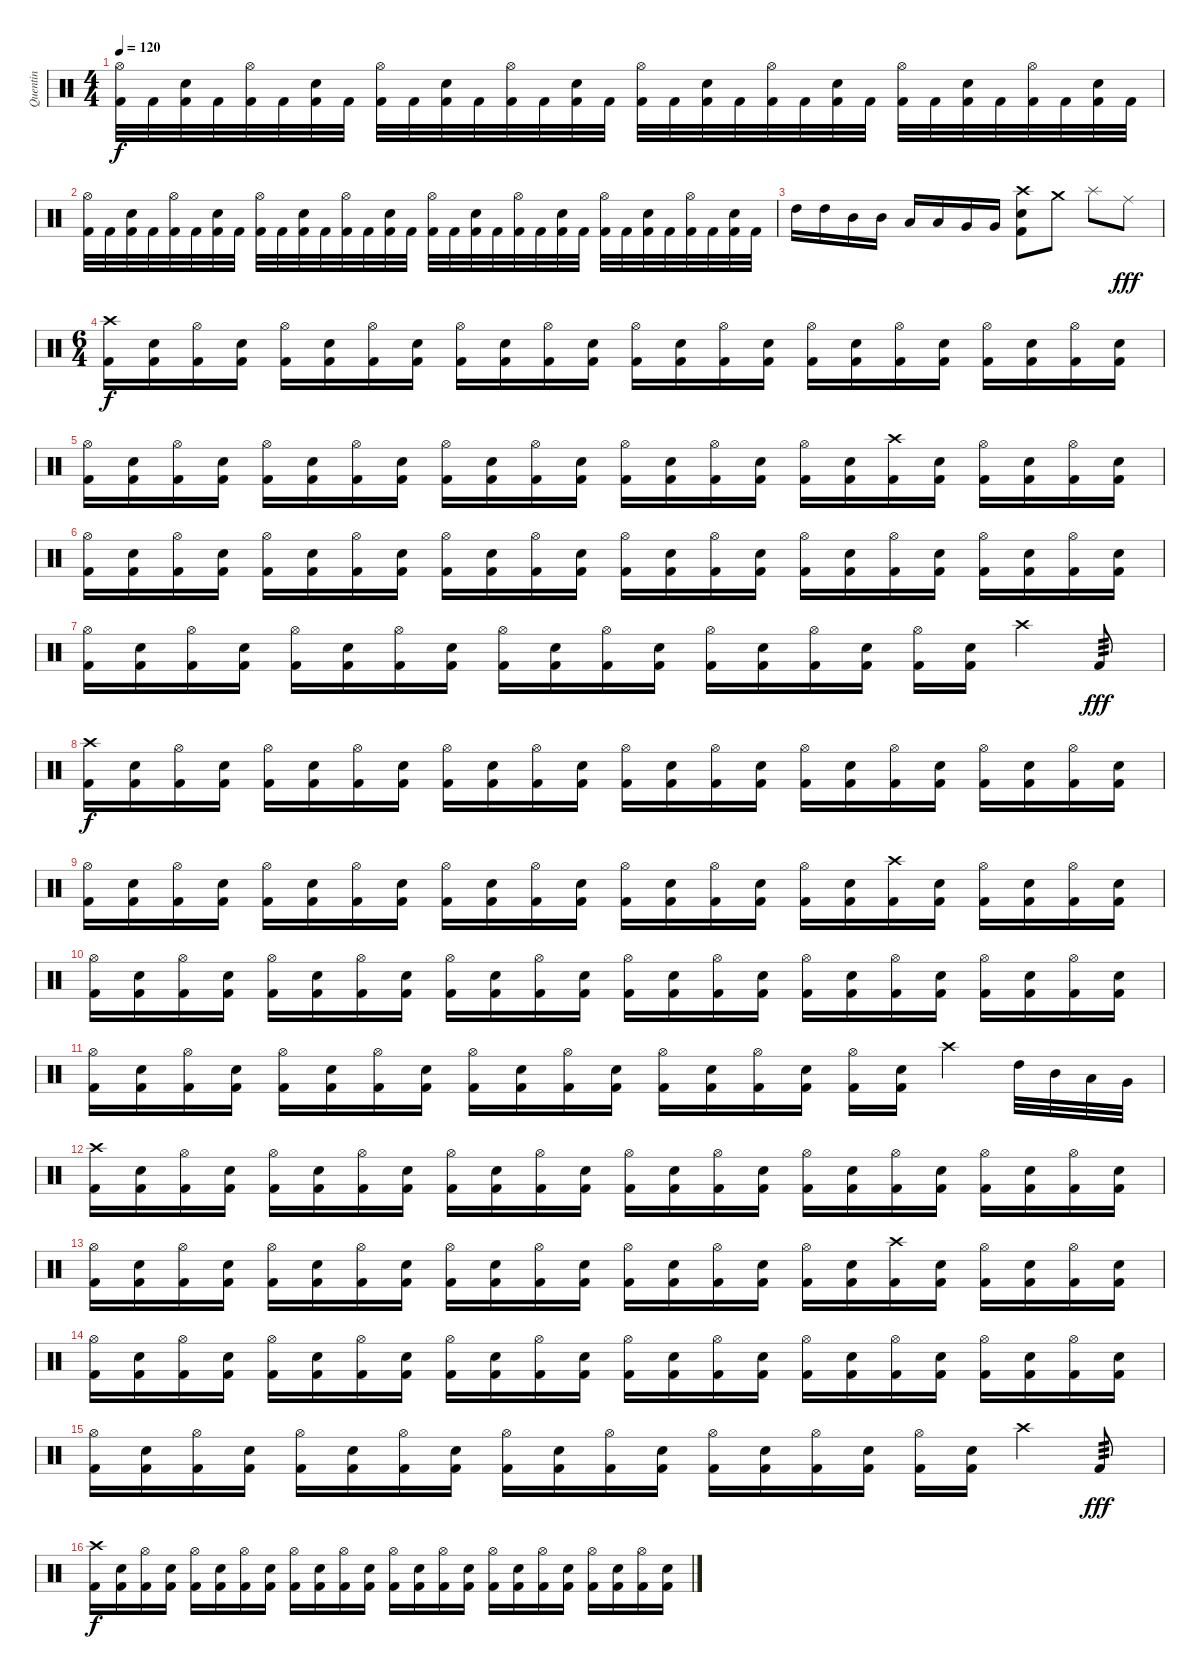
\track ("Quentin" "Quentin") {instrument percussion}
\staff {score}
\articulation defaults
\ts (4 4)
\tempo 120
\clef neutral
\ks c
("Hi-Hat (open)" "Kick (hit) 2").32{dy f} "Kick (hit) 2".32 ("Snare (hit) 2" "Kick (hit) 2").32 "Kick (hit) 2".32 ("Hi-Hat (open)" "Kick (hit) 2").32 "Kick (hit) 2".32 ("Snare (hit) 2" "Kick (hit) 2").32 "Kick (hit) 2".32 ("Hi-Hat (open)" "Kick (hit) 2").32 "Kick (hit) 2".32 ("Snare (hit) 2" "Kick (hit) 2").32 "Kick (hit) 2".32 ("Hi-Hat (open)" "Kick (hit) 2").32 "Kick (hit) 2".32 ("Snare (hit) 2" "Kick (hit) 2").32 "Kick (hit) 2".32 ("Hi-Hat (open)" "Kick (hit) 2").32 "Kick (hit) 2".32 ("Snare (hit) 2" "Kick (hit) 2").32 "Kick (hit) 2".32 ("Hi-Hat (open)" "Kick (hit) 2").32 "Kick (hit) 2".32 ("Snare (hit) 2" "Kick (hit) 2").32 "Kick (hit) 2".32 ("Hi-Hat (open)" "Kick (hit) 2").32 "Kick (hit) 2".32 ("Snare (hit) 2" "Kick (hit) 2").32 "Kick (hit) 2".32 ("Hi-Hat (open)" "Kick (hit) 2").32 "Kick (hit) 2".32 ("Snare (hit) 2" "Kick (hit) 2").32 "Kick (hit) 2".32 |
("Hi-Hat (open)" "Kick (hit) 2").32 "Kick (hit) 2".32 ("Snare (hit) 2" "Kick (hit) 2").32 "Kick (hit) 2".32 ("Hi-Hat (open)" "Kick (hit) 2").32 "Kick (hit) 2".32 ("Snare (hit) 2" "Kick (hit) 2").32 "Kick (hit) 2".32 ("Hi-Hat (open)" "Kick (hit) 2").32 "Kick (hit) 2".32 ("Snare (hit) 2" "Kick (hit) 2").32 "Kick (hit) 2".32 ("Hi-Hat (open)" "Kick (hit) 2").32 "Kick (hit) 2".32 ("Snare (hit) 2" "Kick (hit) 2").32 "Kick (hit) 2".32 ("Hi-Hat (open)" "Kick (hit) 2").32 "Kick (hit) 2".32 ("Snare (hit) 2" "Kick (hit) 2").32 "Kick (hit) 2".32 ("Hi-Hat (open)" "Kick (hit) 2").32 "Kick (hit) 2".32 ("Snare (hit) 2" "Kick (hit) 2").32 "Kick (hit) 2".32 ("Hi-Hat (open)" "Kick (hit) 2").32 "Kick (hit) 2".32 ("Snare (hit) 2" "Kick (hit) 2").32 "Kick (hit) 2".32 ("Hi-Hat (open)" "Kick (hit) 2").32 "Kick (hit) 2".32 ("Snare (hit) 2" "Kick (hit) 2").32 "Kick (hit) 2".32 |
"High Tom (hit)".16 "High Tom (hit)".16 "Mid Tom (hit)".16 "Mid Tom (hit)".16 "Low Tom (hit)".16 "Low Tom (hit)".16 "Very Low Tom (hit)".16 "Very Low Tom (hit)".16 ("Crash high (hit)" "Snare (hit) 2" "Kick (hit) 2").8 "Crash medium (hit)".8 "Splash (hit)".8 "Ride (middle)".8{dy fff} |
\ts (6 4)
("Crash high (hit)" "Kick (hit) 2").16{dy f} ("Snare (hit) 2" "Kick (hit) 2").16 ("Hi-Hat (open)" "Kick (hit) 2").16 ("Snare (hit) 2" "Kick (hit) 2").16 ("Hi-Hat (open)" "Kick (hit) 2").16 ("Snare (hit) 2" "Kick (hit) 2").16 ("Hi-Hat (open)" "Kick (hit) 2").16 ("Snare (hit) 2" "Kick (hit) 2").16 ("Hi-Hat (open)" "Kick (hit) 2").16 ("Snare (hit) 2" "Kick (hit) 2").16 ("Hi-Hat (open)" "Kick (hit) 2").16 ("Snare (hit) 2" "Kick (hit) 2").16 ("Hi-Hat (open)" "Kick (hit) 2").16 ("Snare (hit) 2" "Kick (hit) 2").16 ("Hi-Hat (open)" "Kick (hit) 2").16 ("Snare (hit) 2" "Kick (hit) 2").16 ("Hi-Hat (open)" "Kick (hit) 2").16 ("Snare (hit) 2" "Kick (hit) 2").16 ("Hi-Hat (open)" "Kick (hit) 2").16 ("Snare (hit) 2" "Kick (hit) 2").16 ("Hi-Hat (open)" "Kick (hit) 2").16 ("Snare (hit) 2" "Kick (hit) 2").16 ("Hi-Hat (open)" "Kick (hit) 2").16 ("Snare (hit) 2" "Kick (hit) 2").16 |
("Hi-Hat (open)" "Kick (hit) 2").16 ("Snare (hit) 2" "Kick (hit) 2").16 ("Hi-Hat (open)" "Kick (hit) 2").16 ("Snare (hit) 2" "Kick (hit) 2").16 ("Hi-Hat (open)" "Kick (hit) 2").16 ("Snare (hit) 2" "Kick (hit) 2").16 ("Hi-Hat (open)" "Kick (hit) 2").16 ("Snare (hit) 2" "Kick (hit) 2").16 ("Hi-Hat (open)" "Kick (hit) 2").16 ("Snare (hit) 2" "Kick (hit) 2").16 ("Hi-Hat (open)" "Kick (hit) 2").16 ("Snare (hit) 2" "Kick (hit) 2").16 ("Hi-Hat (open)" "Kick (hit) 2").16 ("Snare (hit) 2" "Kick (hit) 2").16 ("Hi-Hat (open)" "Kick (hit) 2").16 ("Snare (hit) 2" "Kick (hit) 2").16 ("Hi-Hat (open)" "Kick (hit) 2").16 ("Snare (hit) 2" "Kick (hit) 2").16 ("Crash high (hit)" "Kick (hit) 2").16 ("Snare (hit) 2" "Kick (hit) 2").16 ("Hi-Hat (open)" "Kick (hit) 2").16 ("Snare (hit) 2" "Kick (hit) 2").16 ("Hi-Hat (open)" "Kick (hit) 2").16 ("Snare (hit) 2" "Kick (hit) 2").16 |
("Hi-Hat (open)" "Kick (hit) 2").16 ("Snare (hit) 2" "Kick (hit) 2").16 ("Hi-Hat (open)" "Kick (hit) 2").16 ("Snare (hit) 2" "Kick (hit) 2").16 ("Hi-Hat (open)" "Kick (hit) 2").16 ("Snare (hit) 2" "Kick (hit) 2").16 ("Hi-Hat (open)" "Kick (hit) 2").16 ("Snare (hit) 2" "Kick (hit) 2").16 ("Hi-Hat (open)" "Kick (hit) 2").16 ("Snare (hit) 2" "Kick (hit) 2").16 ("Hi-Hat (open)" "Kick (hit) 2").16 ("Snare (hit) 2" "Kick (hit) 2").16 ("Hi-Hat (open)" "Kick (hit) 2").16 ("Snare (hit) 2" "Kick (hit) 2").16 ("Hi-Hat (open)" "Kick (hit) 2").16 ("Snare (hit) 2" "Kick (hit) 2").16 ("Hi-Hat (open)" "Kick (hit) 2").16 ("Snare (hit) 2" "Kick (hit) 2").16 ("Hi-Hat (open)" "Kick (hit) 2").16 ("Snare (hit) 2" "Kick (hit) 2").16 ("Hi-Hat (open)" "Kick (hit) 2").16 ("Snare (hit) 2" "Kick (hit) 2").16 ("Hi-Hat (open)" "Kick (hit) 2").16 ("Snare (hit) 2" "Kick (hit) 2").16 |
("Hi-Hat (open)" "Kick (hit) 2").16 ("Snare (hit) 2" "Kick (hit) 2").16 ("Hi-Hat (open)" "Kick (hit) 2").16 ("Snare (hit) 2" "Kick (hit) 2").16 ("Hi-Hat (open)" "Kick (hit) 2").16 ("Snare (hit) 2" "Kick (hit) 2").16 ("Hi-Hat (open)" "Kick (hit) 2").16 ("Snare (hit) 2" "Kick (hit) 2").16 ("Hi-Hat (open)" "Kick (hit) 2").16 ("Snare (hit) 2" "Kick (hit) 2").16 ("Hi-Hat (open)" "Kick (hit) 2").16 ("Snare (hit) 2" "Kick (hit) 2").16 ("Hi-Hat (open)" "Kick (hit) 2").16 ("Snare (hit) 2" "Kick (hit) 2").16 ("Hi-Hat (open)" "Kick (hit) 2").16 ("Snare (hit) 2" "Kick (hit) 2").16 ("Hi-Hat (open)" "Kick (hit) 2").16 ("Snare (hit) 2" "Kick (hit) 2").16 "Crash high (hit)".4 "Kick (hit) 2".8{tp 3 dy fff} |
("Crash high (hit)" "Kick (hit) 2").16{dy f} ("Snare (hit) 2" "Kick (hit) 2").16 ("Hi-Hat (open)" "Kick (hit) 2").16 ("Snare (hit) 2" "Kick (hit) 2").16 ("Hi-Hat (open)" "Kick (hit) 2").16 ("Snare (hit) 2" "Kick (hit) 2").16 ("Hi-Hat (open)" "Kick (hit) 2").16 ("Snare (hit) 2" "Kick (hit) 2").16 ("Hi-Hat (open)" "Kick (hit) 2").16 ("Snare (hit) 2" "Kick (hit) 2").16 ("Hi-Hat (open)" "Kick (hit) 2").16 ("Snare (hit) 2" "Kick (hit) 2").16 ("Hi-Hat (open)" "Kick (hit) 2").16 ("Snare (hit) 2" "Kick (hit) 2").16 ("Hi-Hat (open)" "Kick (hit) 2").16 ("Snare (hit) 2" "Kick (hit) 2").16 ("Hi-Hat (open)" "Kick (hit) 2").16 ("Snare (hit) 2" "Kick (hit) 2").16 ("Hi-Hat (open)" "Kick (hit) 2").16 ("Snare (hit) 2" "Kick (hit) 2").16 ("Hi-Hat (open)" "Kick (hit) 2").16 ("Snare (hit) 2" "Kick (hit) 2").16 ("Hi-Hat (open)" "Kick (hit) 2").16 ("Snare (hit) 2" "Kick (hit) 2").16 |
("Hi-Hat (open)" "Kick (hit) 2").16 ("Snare (hit) 2" "Kick (hit) 2").16 ("Hi-Hat (open)" "Kick (hit) 2").16 ("Snare (hit) 2" "Kick (hit) 2").16 ("Hi-Hat (open)" "Kick (hit) 2").16 ("Snare (hit) 2" "Kick (hit) 2").16 ("Hi-Hat (open)" "Kick (hit) 2").16 ("Snare (hit) 2" "Kick (hit) 2").16 ("Hi-Hat (open)" "Kick (hit) 2").16 ("Snare (hit) 2" "Kick (hit) 2").16 ("Hi-Hat (open)" "Kick (hit) 2").16 ("Snare (hit) 2" "Kick (hit) 2").16 ("Hi-Hat (open)" "Kick (hit) 2").16 ("Snare (hit) 2" "Kick (hit) 2").16 ("Hi-Hat (open)" "Kick (hit) 2").16 ("Snare (hit) 2" "Kick (hit) 2").16 ("Hi-Hat (open)" "Kick (hit) 2").16 ("Snare (hit) 2" "Kick (hit) 2").16 ("Crash high (hit)" "Kick (hit) 2").16 ("Snare (hit) 2" "Kick (hit) 2").16 ("Hi-Hat (open)" "Kick (hit) 2").16 ("Snare (hit) 2" "Kick (hit) 2").16 ("Hi-Hat (open)" "Kick (hit) 2").16 ("Snare (hit) 2" "Kick (hit) 2").16 |
("Hi-Hat (open)" "Kick (hit) 2").16 ("Snare (hit) 2" "Kick (hit) 2").16 ("Hi-Hat (open)" "Kick (hit) 2").16 ("Snare (hit) 2" "Kick (hit) 2").16 ("Hi-Hat (open)" "Kick (hit) 2").16 ("Snare (hit) 2" "Kick (hit) 2").16 ("Hi-Hat (open)" "Kick (hit) 2").16 ("Snare (hit) 2" "Kick (hit) 2").16 ("Hi-Hat (open)" "Kick (hit) 2").16 ("Snare (hit) 2" "Kick (hit) 2").16 ("Hi-Hat (open)" "Kick (hit) 2").16 ("Snare (hit) 2" "Kick (hit) 2").16 ("Hi-Hat (open)" "Kick (hit) 2").16 ("Snare (hit) 2" "Kick (hit) 2").16 ("Hi-Hat (open)" "Kick (hit) 2").16 ("Snare (hit) 2" "Kick (hit) 2").16 ("Hi-Hat (open)" "Kick (hit) 2").16 ("Snare (hit) 2" "Kick (hit) 2").16 ("Hi-Hat (open)" "Kick (hit) 2").16 ("Snare (hit) 2" "Kick (hit) 2").16 ("Hi-Hat (open)" "Kick (hit) 2").16 ("Snare (hit) 2" "Kick (hit) 2").16 ("Hi-Hat (open)" "Kick (hit) 2").16 ("Snare (hit) 2" "Kick (hit) 2").16 |
("Hi-Hat (open)" "Kick (hit) 2").16 ("Snare (hit) 2" "Kick (hit) 2").16 ("Hi-Hat (open)" "Kick (hit) 2").16 ("Snare (hit) 2" "Kick (hit) 2").16 ("Hi-Hat (open)" "Kick (hit) 2").16 ("Snare (hit) 2" "Kick (hit) 2").16 ("Hi-Hat (open)" "Kick (hit) 2").16 ("Snare (hit) 2" "Kick (hit) 2").16 ("Hi-Hat (open)" "Kick (hit) 2").16 ("Snare (hit) 2" "Kick (hit) 2").16 ("Hi-Hat (open)" "Kick (hit) 2").16 ("Snare (hit) 2" "Kick (hit) 2").16 ("Hi-Hat (open)" "Kick (hit) 2").16 ("Snare (hit) 2" "Kick (hit) 2").16 ("Hi-Hat (open)" "Kick (hit) 2").16 ("Snare (hit) 2" "Kick (hit) 2").16 ("Hi-Hat (open)" "Kick (hit) 2").16 ("Snare (hit) 2" "Kick (hit) 2").16 "Crash high (hit)".4 "High Tom (hit)".32 "Mid Tom (hit)".32 "Low Tom (hit)".32 "Very Low Tom (hit)".32 |
("Crash high (hit)" "Kick (hit) 2").16 ("Snare (hit) 2" "Kick (hit) 2").16 ("Hi-Hat (open)" "Kick (hit) 2").16 ("Snare (hit) 2" "Kick (hit) 2").16 ("Hi-Hat (open)" "Kick (hit) 2").16 ("Snare (hit) 2" "Kick (hit) 2").16 ("Hi-Hat (open)" "Kick (hit) 2").16 ("Snare (hit) 2" "Kick (hit) 2").16 ("Hi-Hat (open)" "Kick (hit) 2").16 ("Snare (hit) 2" "Kick (hit) 2").16 ("Hi-Hat (open)" "Kick (hit) 2").16 ("Snare (hit) 2" "Kick (hit) 2").16 ("Hi-Hat (open)" "Kick (hit) 2").16 ("Snare (hit) 2" "Kick (hit) 2").16 ("Hi-Hat (open)" "Kick (hit) 2").16 ("Snare (hit) 2" "Kick (hit) 2").16 ("Hi-Hat (open)" "Kick (hit) 2").16 ("Snare (hit) 2" "Kick (hit) 2").16 ("Hi-Hat (open)" "Kick (hit) 2").16 ("Snare (hit) 2" "Kick (hit) 2").16 ("Hi-Hat (open)" "Kick (hit) 2").16 ("Snare (hit) 2" "Kick (hit) 2").16 ("Hi-Hat (open)" "Kick (hit) 2").16 ("Snare (hit) 2" "Kick (hit) 2").16 |
("Hi-Hat (open)" "Kick (hit) 2").16 ("Snare (hit) 2" "Kick (hit) 2").16 ("Hi-Hat (open)" "Kick (hit) 2").16 ("Snare (hit) 2" "Kick (hit) 2").16 ("Hi-Hat (open)" "Kick (hit) 2").16 ("Snare (hit) 2" "Kick (hit) 2").16 ("Hi-Hat (open)" "Kick (hit) 2").16 ("Snare (hit) 2" "Kick (hit) 2").16 ("Hi-Hat (open)" "Kick (hit) 2").16 ("Snare (hit) 2" "Kick (hit) 2").16 ("Hi-Hat (open)" "Kick (hit) 2").16 ("Snare (hit) 2" "Kick (hit) 2").16 ("Hi-Hat (open)" "Kick (hit) 2").16 ("Snare (hit) 2" "Kick (hit) 2").16 ("Hi-Hat (open)" "Kick (hit) 2").16 ("Snare (hit) 2" "Kick (hit) 2").16 ("Hi-Hat (open)" "Kick (hit) 2").16 ("Snare (hit) 2" "Kick (hit) 2").16 ("Crash high (hit)" "Kick (hit) 2").16 ("Snare (hit) 2" "Kick (hit) 2").16 ("Hi-Hat (open)" "Kick (hit) 2").16 ("Snare (hit) 2" "Kick (hit) 2").16 ("Hi-Hat (open)" "Kick (hit) 2").16 ("Snare (hit) 2" "Kick (hit) 2").16 |
("Hi-Hat (open)" "Kick (hit) 2").16 ("Snare (hit) 2" "Kick (hit) 2").16 ("Hi-Hat (open)" "Kick (hit) 2").16 ("Snare (hit) 2" "Kick (hit) 2").16 ("Hi-Hat (open)" "Kick (hit) 2").16 ("Snare (hit) 2" "Kick (hit) 2").16 ("Hi-Hat (open)" "Kick (hit) 2").16 ("Snare (hit) 2" "Kick (hit) 2").16 ("Hi-Hat (open)" "Kick (hit) 2").16 ("Snare (hit) 2" "Kick (hit) 2").16 ("Hi-Hat (open)" "Kick (hit) 2").16 ("Snare (hit) 2" "Kick (hit) 2").16 ("Hi-Hat (open)" "Kick (hit) 2").16 ("Snare (hit) 2" "Kick (hit) 2").16 ("Hi-Hat (open)" "Kick (hit) 2").16 ("Snare (hit) 2" "Kick (hit) 2").16 ("Hi-Hat (open)" "Kick (hit) 2").16 ("Snare (hit) 2" "Kick (hit) 2").16 ("Hi-Hat (open)" "Kick (hit) 2").16 ("Snare (hit) 2" "Kick (hit) 2").16 ("Hi-Hat (open)" "Kick (hit) 2").16 ("Snare (hit) 2" "Kick (hit) 2").16 ("Hi-Hat (open)" "Kick (hit) 2").16 ("Snare (hit) 2" "Kick (hit) 2").16 |
("Hi-Hat (open)" "Kick (hit) 2").16 ("Snare (hit) 2" "Kick (hit) 2").16 ("Hi-Hat (open)" "Kick (hit) 2").16 ("Snare (hit) 2" "Kick (hit) 2").16 ("Hi-Hat (open)" "Kick (hit) 2").16 ("Snare (hit) 2" "Kick (hit) 2").16 ("Hi-Hat (open)" "Kick (hit) 2").16 ("Snare (hit) 2" "Kick (hit) 2").16 ("Hi-Hat (open)" "Kick (hit) 2").16 ("Snare (hit) 2" "Kick (hit) 2").16 ("Hi-Hat (open)" "Kick (hit) 2").16 ("Snare (hit) 2" "Kick (hit) 2").16 ("Hi-Hat (open)" "Kick (hit) 2").16 ("Snare (hit) 2" "Kick (hit) 2").16 ("Hi-Hat (open)" "Kick (hit) 2").16 ("Snare (hit) 2" "Kick (hit) 2").16 ("Hi-Hat (open)" "Kick (hit) 2").16 ("Snare (hit) 2" "Kick (hit) 2").16 "Crash high (hit)".4 "Kick (hit) 2".8{tp 3 dy fff} |
("Crash high (hit)" "Kick (hit) 2").16{dy f} ("Snare (hit) 2" "Kick (hit) 2").16 ("Hi-Hat (open)" "Kick (hit) 2").16 ("Snare (hit) 2" "Kick (hit) 2").16 ("Hi-Hat (open)" "Kick (hit) 2").16 ("Snare (hit) 2" "Kick (hit) 2").16 ("Hi-Hat (open)" "Kick (hit) 2").16 ("Snare (hit) 2" "Kick (hit) 2").16 ("Hi-Hat (open)" "Kick (hit) 2").16 ("Snare (hit) 2" "Kick (hit) 2").16 ("Hi-Hat (open)" "Kick (hit) 2").16 ("Snare (hit) 2" "Kick (hit) 2").16 ("Hi-Hat (open)" "Kick (hit) 2").16 ("Snare (hit) 2" "Kick (hit) 2").16 ("Hi-Hat (open)" "Kick (hit) 2").16 ("Snare (hit) 2" "Kick (hit) 2").16 ("Hi-Hat (open)" "Kick (hit) 2").16 ("Snare (hit) 2" "Kick (hit) 2").16 ("Hi-Hat (open)" "Kick (hit) 2").16 ("Snare (hit) 2" "Kick (hit) 2").16 ("Hi-Hat (open)" "Kick (hit) 2").16 ("Snare (hit) 2" "Kick (hit) 2").16 ("Hi-Hat (open)" "Kick (hit) 2").16 ("Snare (hit) 2" "Kick (hit) 2").16
